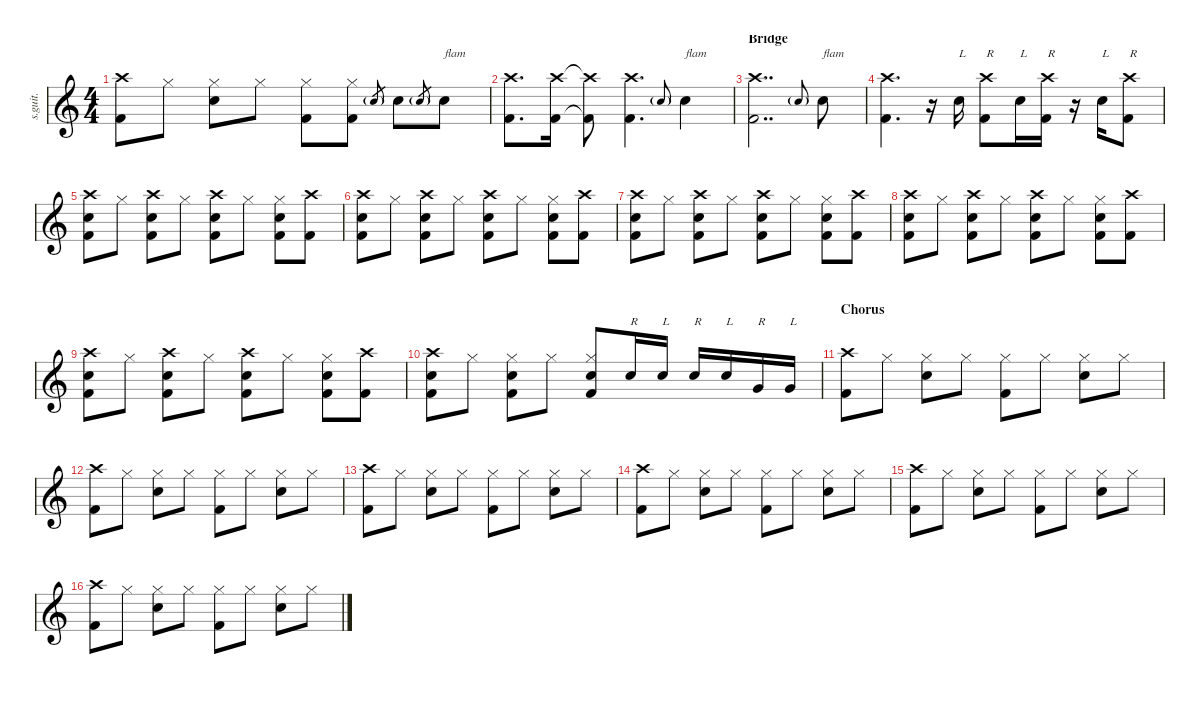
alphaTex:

\defaultSystemsLayout 4
\hideDynamics
\bracketExtendMode nobrackets
\track ("Phil Rudd - Drums" "s.guit.") {instrument percussion}
\staff {score}
\articulation defaults
\ts (4 4)
\tempo (97 hide)
\clef g2
\ks c
("Crash high (hit)" "Kick (hit) 2").8{lyrics (0 "") lyrics (1 "") lyrics (2 "") lyrics (3 "") lyrics (4 "") dy f} "Hi-Hat (closed)".8{lyrics (0 "") lyrics (1 "") lyrics (2 "") lyrics (3 "") lyrics (4 "")} ("Hi-Hat (closed)" "Snare (hit) 2").8{lyrics (0 "") lyrics (1 "") lyrics (2 "") lyrics (3 "") lyrics (4 "")} "Hi-Hat (closed)".8{lyrics (0 "") lyrics (1 "") lyrics (2 "") lyrics (3 "") lyrics (4 "")} ("Hi-Hat (closed)" "Kick (hit) 2").8{lyrics (0 "") lyrics (1 "") lyrics (2 "") lyrics (3 "") lyrics (4 "")} ("Hi-Hat (closed)" "Kick (hit) 2").8{lyrics (0 "") lyrics (1 "") lyrics (2 "") lyrics (3 "") lyrics (4 "")} "Snare (hit) 2"{g}.8{lyrics (0 "") lyrics (1 "") lyrics (2 "") lyrics (3 "") lyrics (4 "") gr} "Snare (hit) 2".8{lyrics (0 "") lyrics (1 "") lyrics (2 "") lyrics (3 "") lyrics (4 "")} "Snare (hit) 2"{g}.8{lyrics (0 "") lyrics (1 "") lyrics (2 "") lyrics (3 "") lyrics (4 "") gr} "Snare (hit) 2".8{txt "flam" lyrics (0 "") lyrics (1 "") lyrics (2 "") lyrics (3 "") lyrics (4 "")} |
("Crash high (hit)" "Kick (hit) 2").8{d lyrics (0 "") lyrics (1 "") lyrics (2 "") lyrics (3 "") lyrics (4 "")} ("Crash high (hit)" "Kick (hit) 2").16{lyrics (0 "") lyrics (1 "") lyrics (2 "") lyrics (3 "") lyrics (4 "")} ("Crash high (hit)"{t} "Kick (hit) 2"{t}).8{lyrics (0 "") lyrics (1 "") lyrics (2 "") lyrics (3 "") lyrics (4 "")} ("Crash high (hit)" "Kick (hit) 2").4{d lyrics (0 "") lyrics (1 "") lyrics (2 "") lyrics (3 "") lyrics (4 "")} "Snare (hit) 2"{g}.8{lyrics (0 "") lyrics (1 "") lyrics (2 "") lyrics (3 "") lyrics (4 "") gr onbeat} "Snare (hit) 2".4{txt "flam" lyrics (0 "") lyrics (1 "") lyrics (2 "") lyrics (3 "") lyrics (4 "")} |
\section ("" "Bridge")
("Crash high (hit)" "Kick (hit) 2").2{dd lyrics (0 "") lyrics (1 "") lyrics (2 "") lyrics (3 "") lyrics (4 "")} "Snare (hit) 2"{g}.8{lyrics (0 "") lyrics (1 "") lyrics (2 "") lyrics (3 "") lyrics (4 "") gr onbeat} "Snare (hit) 2".8{txt "flam" lyrics (0 "") lyrics (1 "") lyrics (2 "") lyrics (3 "") lyrics (4 "")} |
("Crash high (hit)" "Kick (hit) 2").4{d lyrics (0 "") lyrics (1 "") lyrics (2 "") lyrics (3 "") lyrics (4 "")} r.16 "Snare (hit) 2".16{txt "L" lyrics (0 "") lyrics (1 "") lyrics (2 "") lyrics (3 "") lyrics (4 "")} ("Crash high (hit)" "Kick (hit) 2").8{txt "R" lyrics (0 "") lyrics (1 "") lyrics (2 "") lyrics (3 "") lyrics (4 "")} "Snare (hit) 2".16{txt "L" lyrics (0 "") lyrics (1 "") lyrics (2 "") lyrics (3 "") lyrics (4 "")} ("Crash high (hit)" "Kick (hit) 2").16{txt "R" lyrics (0 "") lyrics (1 "") lyrics (2 "") lyrics (3 "") lyrics (4 "")} r.16 "Snare (hit) 2".16{txt "L" lyrics (0 "") lyrics (1 "") lyrics (2 "") lyrics (3 "") lyrics (4 "")} ("Crash high (hit)" "Kick (hit) 2").8{txt "R" lyrics (0 "") lyrics (1 "") lyrics (2 "") lyrics (3 "") lyrics (4 "")} |
("Crash high (hit)" "Snare (hit) 2" "Kick (hit) 2").8{lyrics (0 "") lyrics (1 "") lyrics (2 "") lyrics (3 "") lyrics (4 "")} "Hi-Hat (closed)".8{lyrics (0 "") lyrics (1 "") lyrics (2 "") lyrics (3 "") lyrics (4 "")} ("Crash high (hit)" "Snare (hit) 2" "Kick (hit) 2").8{lyrics (0 "") lyrics (1 "") lyrics (2 "") lyrics (3 "") lyrics (4 "")} "Hi-Hat (closed)".8{lyrics (0 "") lyrics (1 "") lyrics (2 "") lyrics (3 "") lyrics (4 "")} ("Crash high (hit)" "Snare (hit) 2" "Kick (hit) 2").8{lyrics (0 "") lyrics (1 "") lyrics (2 "") lyrics (3 "") lyrics (4 "")} "Hi-Hat (closed)".8{lyrics (0 "") lyrics (1 "") lyrics (2 "") lyrics (3 "") lyrics (4 "")} ("Hi-Hat (closed)" "Snare (hit) 2" "Kick (hit) 2").8{lyrics (0 "") lyrics (1 "") lyrics (2 "") lyrics (3 "") lyrics (4 "")} ("Crash high (hit)" "Kick (hit) 2").8{lyrics (0 "") lyrics (1 "") lyrics (2 "") lyrics (3 "") lyrics (4 "")} |
("Crash high (hit)" "Snare (hit) 2" "Kick (hit) 2").8{lyrics (0 "") lyrics (1 "") lyrics (2 "") lyrics (3 "") lyrics (4 "")} "Hi-Hat (closed)".8{lyrics (0 "") lyrics (1 "") lyrics (2 "") lyrics (3 "") lyrics (4 "")} ("Crash high (hit)" "Snare (hit) 2" "Kick (hit) 2").8{lyrics (0 "") lyrics (1 "") lyrics (2 "") lyrics (3 "") lyrics (4 "")} "Hi-Hat (closed)".8{lyrics (0 "") lyrics (1 "") lyrics (2 "") lyrics (3 "") lyrics (4 "")} ("Crash high (hit)" "Snare (hit) 2" "Kick (hit) 2").8{lyrics (0 "") lyrics (1 "") lyrics (2 "") lyrics (3 "") lyrics (4 "")} "Hi-Hat (closed)".8{lyrics (0 "") lyrics (1 "") lyrics (2 "") lyrics (3 "") lyrics (4 "")} ("Hi-Hat (closed)" "Snare (hit) 2" "Kick (hit) 2").8{lyrics (0 "") lyrics (1 "") lyrics (2 "") lyrics (3 "") lyrics (4 "")} ("Crash high (hit)" "Kick (hit) 2").8{lyrics (0 "") lyrics (1 "") lyrics (2 "") lyrics (3 "") lyrics (4 "")} |
("Crash high (hit)" "Snare (hit) 2" "Kick (hit) 2").8{lyrics (0 "") lyrics (1 "") lyrics (2 "") lyrics (3 "") lyrics (4 "")} "Hi-Hat (closed)".8{lyrics (0 "") lyrics (1 "") lyrics (2 "") lyrics (3 "") lyrics (4 "")} ("Crash high (hit)" "Snare (hit) 2" "Kick (hit) 2").8{lyrics (0 "") lyrics (1 "") lyrics (2 "") lyrics (3 "") lyrics (4 "")} "Hi-Hat (closed)".8{lyrics (0 "") lyrics (1 "") lyrics (2 "") lyrics (3 "") lyrics (4 "")} ("Crash high (hit)" "Snare (hit) 2" "Kick (hit) 2").8{lyrics (0 "") lyrics (1 "") lyrics (2 "") lyrics (3 "") lyrics (4 "")} "Hi-Hat (closed)".8{lyrics (0 "") lyrics (1 "") lyrics (2 "") lyrics (3 "") lyrics (4 "")} ("Hi-Hat (closed)" "Snare (hit) 2" "Kick (hit) 2").8{lyrics (0 "") lyrics (1 "") lyrics (2 "") lyrics (3 "") lyrics (4 "")} ("Crash high (hit)" "Kick (hit) 2").8{lyrics (0 "") lyrics (1 "") lyrics (2 "") lyrics (3 "") lyrics (4 "")} |
("Crash high (hit)" "Snare (hit) 2" "Kick (hit) 2").8{lyrics (0 "") lyrics (1 "") lyrics (2 "") lyrics (3 "") lyrics (4 "")} "Hi-Hat (closed)".8{lyrics (0 "") lyrics (1 "") lyrics (2 "") lyrics (3 "") lyrics (4 "")} ("Crash high (hit)" "Snare (hit) 2" "Kick (hit) 2").8{lyrics (0 "") lyrics (1 "") lyrics (2 "") lyrics (3 "") lyrics (4 "")} "Hi-Hat (closed)".8{lyrics (0 "") lyrics (1 "") lyrics (2 "") lyrics (3 "") lyrics (4 "")} ("Crash high (hit)" "Snare (hit) 2" "Kick (hit) 2").8{lyrics (0 "") lyrics (1 "") lyrics (2 "") lyrics (3 "") lyrics (4 "")} "Hi-Hat (closed)".8{lyrics (0 "") lyrics (1 "") lyrics (2 "") lyrics (3 "") lyrics (4 "")} ("Hi-Hat (closed)" "Snare (hit) 2" "Kick (hit) 2").8{lyrics (0 "") lyrics (1 "") lyrics (2 "") lyrics (3 "") lyrics (4 "")} ("Crash high (hit)" "Kick (hit) 2").8{lyrics (0 "") lyrics (1 "") lyrics (2 "") lyrics (3 "") lyrics (4 "")} |
("Crash high (hit)" "Snare (hit) 2" "Kick (hit) 2").8{lyrics (0 "") lyrics (1 "") lyrics (2 "") lyrics (3 "") lyrics (4 "")} "Hi-Hat (closed)".8{lyrics (0 "") lyrics (1 "") lyrics (2 "") lyrics (3 "") lyrics (4 "")} ("Crash high (hit)" "Snare (hit) 2" "Kick (hit) 2").8{lyrics (0 "") lyrics (1 "") lyrics (2 "") lyrics (3 "") lyrics (4 "")} "Hi-Hat (closed)".8{lyrics (0 "") lyrics (1 "") lyrics (2 "") lyrics (3 "") lyrics (4 "")} ("Crash high (hit)" "Snare (hit) 2" "Kick (hit) 2").8{lyrics (0 "") lyrics (1 "") lyrics (2 "") lyrics (3 "") lyrics (4 "")} "Hi-Hat (closed)".8{lyrics (0 "") lyrics (1 "") lyrics (2 "") lyrics (3 "") lyrics (4 "")} ("Hi-Hat (closed)" "Snare (hit) 2" "Kick (hit) 2").8{lyrics (0 "") lyrics (1 "") lyrics (2 "") lyrics (3 "") lyrics (4 "")} ("Crash high (hit)" "Kick (hit) 2").8{lyrics (0 "") lyrics (1 "") lyrics (2 "") lyrics (3 "") lyrics (4 "")} |
("Crash high (hit)" "Snare (hit) 2" "Kick (hit) 2").8{lyrics (0 "") lyrics (1 "") lyrics (2 "") lyrics (3 "") lyrics (4 "")} "Hi-Hat (closed)".8{lyrics (0 "") lyrics (1 "") lyrics (2 "") lyrics (3 "") lyrics (4 "")} ("Snare (hit) 2" "Hi-Hat (closed)" "Kick (hit) 2").8{lyrics (0 "") lyrics (1 "") lyrics (2 "") lyrics (3 "") lyrics (4 "")} "Hi-Hat (closed)".8{lyrics (0 "") lyrics (1 "") lyrics (2 "") lyrics (3 "") lyrics (4 "")} ("Snare (hit) 2" "Hi-Hat (closed)" "Kick (hit) 2").8{lyrics (0 "") lyrics (1 "") lyrics (2 "") lyrics (3 "") lyrics (4 "")} "Snare (hit) 2".16{txt "R" lyrics (0 "") lyrics (1 "") lyrics (2 "") lyrics (3 "") lyrics (4 "")} "Snare (hit) 2".16{txt "L" lyrics (0 "") lyrics (1 "") lyrics (2 "") lyrics (3 "") lyrics (4 "")} "Snare (hit) 2".16{txt "R" lyrics (0 "") lyrics (1 "") lyrics (2 "") lyrics (3 "") lyrics (4 "")} "Snare (hit) 2".16{txt "L" lyrics (0 "") lyrics (1 "") lyrics (2 "") lyrics (3 "") lyrics (4 "")} "Very Low Tom (hit)".16{txt "R" lyrics (0 "") lyrics (1 "") lyrics (2 "") lyrics (3 "") lyrics (4 "")} "Very Low Tom (hit)".16{txt "L" lyrics (0 "") lyrics (1 "") lyrics (2 "") lyrics (3 "") lyrics (4 "")} |
\section ("" "Chorus")
("Crash high (hit)" "Kick (hit) 2").8{lyrics (0 "") lyrics (1 "") lyrics (2 "") lyrics (3 "") lyrics (4 "")} "Hi-Hat (closed)".8{lyrics (0 "") lyrics (1 "") lyrics (2 "") lyrics (3 "") lyrics (4 "")} ("Hi-Hat (closed)" "Snare (hit) 2").8{lyrics (0 "") lyrics (1 "") lyrics (2 "") lyrics (3 "") lyrics (4 "")} "Hi-Hat (closed)".8{lyrics (0 "") lyrics (1 "") lyrics (2 "") lyrics (3 "") lyrics (4 "")} ("Hi-Hat (closed)" "Kick (hit) 2").8{lyrics (0 "") lyrics (1 "") lyrics (2 "") lyrics (3 "") lyrics (4 "")} "Hi-Hat (closed)".8{lyrics (0 "") lyrics (1 "") lyrics (2 "") lyrics (3 "") lyrics (4 "")} ("Hi-Hat (closed)" "Snare (hit) 2").8{lyrics (0 "") lyrics (1 "") lyrics (2 "") lyrics (3 "") lyrics (4 "")} "Hi-Hat (closed)".8{lyrics (0 "") lyrics (1 "") lyrics (2 "") lyrics (3 "") lyrics (4 "")} |
("Crash high (hit)" "Kick (hit) 2").8{lyrics (0 "") lyrics (1 "") lyrics (2 "") lyrics (3 "") lyrics (4 "")} "Hi-Hat (closed)".8{lyrics (0 "") lyrics (1 "") lyrics (2 "") lyrics (3 "") lyrics (4 "")} ("Hi-Hat (closed)" "Snare (hit) 2").8{lyrics (0 "") lyrics (1 "") lyrics (2 "") lyrics (3 "") lyrics (4 "")} "Hi-Hat (closed)".8{lyrics (0 "") lyrics (1 "") lyrics (2 "") lyrics (3 "") lyrics (4 "")} ("Hi-Hat (closed)" "Kick (hit) 2").8{lyrics (0 "") lyrics (1 "") lyrics (2 "") lyrics (3 "") lyrics (4 "")} "Hi-Hat (closed)".8{lyrics (0 "") lyrics (1 "") lyrics (2 "") lyrics (3 "") lyrics (4 "")} ("Hi-Hat (closed)" "Snare (hit) 2").8{lyrics (0 "") lyrics (1 "") lyrics (2 "") lyrics (3 "") lyrics (4 "")} "Hi-Hat (closed)".8{lyrics (0 "") lyrics (1 "") lyrics (2 "") lyrics (3 "") lyrics (4 "")} |
("Crash high (hit)" "Kick (hit) 2").8{lyrics (0 "") lyrics (1 "") lyrics (2 "") lyrics (3 "") lyrics (4 "")} "Hi-Hat (closed)".8{lyrics (0 "") lyrics (1 "") lyrics (2 "") lyrics (3 "") lyrics (4 "")} ("Hi-Hat (closed)" "Snare (hit) 2").8{lyrics (0 "") lyrics (1 "") lyrics (2 "") lyrics (3 "") lyrics (4 "")} "Hi-Hat (closed)".8{lyrics (0 "") lyrics (1 "") lyrics (2 "") lyrics (3 "") lyrics (4 "")} ("Hi-Hat (closed)" "Kick (hit) 2").8{lyrics (0 "") lyrics (1 "") lyrics (2 "") lyrics (3 "") lyrics (4 "")} "Hi-Hat (closed)".8{lyrics (0 "") lyrics (1 "") lyrics (2 "") lyrics (3 "") lyrics (4 "")} ("Hi-Hat (closed)" "Snare (hit) 2").8{lyrics (0 "") lyrics (1 "") lyrics (2 "") lyrics (3 "") lyrics (4 "")} "Hi-Hat (closed)".8{lyrics (0 "") lyrics (1 "") lyrics (2 "") lyrics (3 "") lyrics (4 "")} |
("Crash high (hit)" "Kick (hit) 2").8{lyrics (0 "") lyrics (1 "") lyrics (2 "") lyrics (3 "") lyrics (4 "")} "Hi-Hat (closed)".8{lyrics (0 "") lyrics (1 "") lyrics (2 "") lyrics (3 "") lyrics (4 "")} ("Hi-Hat (closed)" "Snare (hit) 2").8{lyrics (0 "") lyrics (1 "") lyrics (2 "") lyrics (3 "") lyrics (4 "")} "Hi-Hat (closed)".8{lyrics (0 "") lyrics (1 "") lyrics (2 "") lyrics (3 "") lyrics (4 "")} ("Hi-Hat (closed)" "Kick (hit) 2").8{lyrics (0 "") lyrics (1 "") lyrics (2 "") lyrics (3 "") lyrics (4 "")} "Hi-Hat (closed)".8{lyrics (0 "") lyrics (1 "") lyrics (2 "") lyrics (3 "") lyrics (4 "")} ("Hi-Hat (closed)" "Snare (hit) 2").8{lyrics (0 "") lyrics (1 "") lyrics (2 "") lyrics (3 "") lyrics (4 "")} "Hi-Hat (closed)".8{lyrics (0 "") lyrics (1 "") lyrics (2 "") lyrics (3 "") lyrics (4 "")} |
("Crash high (hit)" "Kick (hit) 2").8{lyrics (0 "") lyrics (1 "") lyrics (2 "") lyrics (3 "") lyrics (4 "")} "Hi-Hat (closed)".8{lyrics (0 "") lyrics (1 "") lyrics (2 "") lyrics (3 "") lyrics (4 "")} ("Hi-Hat (closed)" "Snare (hit) 2").8{lyrics (0 "") lyrics (1 "") lyrics (2 "") lyrics (3 "") lyrics (4 "")} "Hi-Hat (closed)".8{lyrics (0 "") lyrics (1 "") lyrics (2 "") lyrics (3 "") lyrics (4 "")} ("Hi-Hat (closed)" "Kick (hit) 2").8{lyrics (0 "") lyrics (1 "") lyrics (2 "") lyrics (3 "") lyrics (4 "")} "Hi-Hat (closed)".8{lyrics (0 "") lyrics (1 "") lyrics (2 "") lyrics (3 "") lyrics (4 "")} ("Hi-Hat (closed)" "Snare (hit) 2").8{lyrics (0 "") lyrics (1 "") lyrics (2 "") lyrics (3 "") lyrics (4 "")} "Hi-Hat (closed)".8{lyrics (0 "") lyrics (1 "") lyrics (2 "") lyrics (3 "") lyrics (4 "")} |
("Crash high (hit)" "Kick (hit) 2").8{lyrics (0 "") lyrics (1 "") lyrics (2 "") lyrics (3 "") lyrics (4 "")} "Hi-Hat (closed)".8{lyrics (0 "") lyrics (1 "") lyrics (2 "") lyrics (3 "") lyrics (4 "")} ("Hi-Hat (closed)" "Snare (hit) 2").8{lyrics (0 "") lyrics (1 "") lyrics (2 "") lyrics (3 "") lyrics (4 "")} "Hi-Hat (closed)".8{lyrics (0 "") lyrics (1 "") lyrics (2 "") lyrics (3 "") lyrics (4 "")} ("Hi-Hat (closed)" "Kick (hit) 2").8{lyrics (0 "") lyrics (1 "") lyrics (2 "") lyrics (3 "") lyrics (4 "")} "Hi-Hat (closed)".8{lyrics (0 "") lyrics (1 "") lyrics (2 "") lyrics (3 "") lyrics (4 "")} ("Hi-Hat (closed)" "Snare (hit) 2").8{lyrics (0 "") lyrics (1 "") lyrics (2 "") lyrics (3 "") lyrics (4 "")} "Hi-Hat (closed)".8{lyrics (0 "") lyrics (1 "") lyrics (2 "") lyrics (3 "") lyrics (4 "")}
